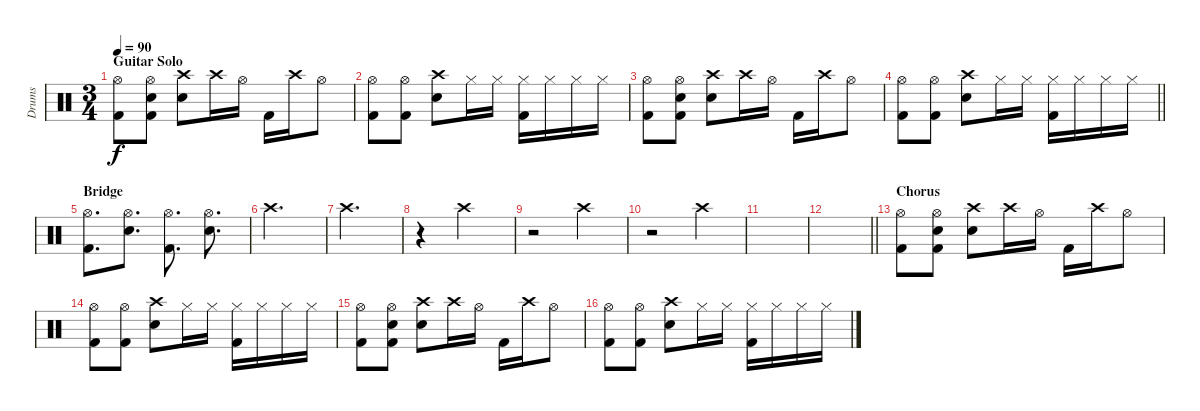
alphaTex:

\track ("Drums" "Drums") {instrument percussion}
\staff {score}
\articulation defaults
\ts (3 4)
\section ("" "Guitar Solo")
\tempo 90
\clef neutral
\ks c
("Hi-Hat (open)" "Kick (hit) 2").8{dy f} ("Hi-Hat (open)" "Snare (hit) 2" "Kick (hit) 2").8 ("Crash high (hit)" "Snare (hit) 2").8 "Crash high (hit)".16 "Hi-Hat (open)".16 "Kick (hit) 2".16 "Crash high (hit)".16 "Hi-Hat (open)".8 |
("Hi-Hat (open)" "Kick (hit) 2").8 ("Hi-Hat (open)" "Kick (hit) 2").8 ("Crash high (hit)" "Snare (hit) 2").8 "Hi-Hat (closed)".16 "Hi-Hat (closed)".16 ("Hi-Hat (closed)" "Kick (hit) 2").16 "Hi-Hat (closed)".16 "Hi-Hat (closed)".16 "Hi-Hat (closed)".16 |
("Hi-Hat (open)" "Kick (hit) 2").8 ("Hi-Hat (open)" "Snare (hit) 2" "Kick (hit) 2").8 ("Crash high (hit)" "Snare (hit) 2").8 "Crash high (hit)".16 "Hi-Hat (open)".16 "Kick (hit) 2".16 "Crash high (hit)".16 "Hi-Hat (open)".8 |
\barLineRight lightlight
("Hi-Hat (open)" "Kick (hit) 2").8 ("Hi-Hat (open)" "Kick (hit) 2").8 ("Crash high (hit)" "Snare (hit) 2").8 "Hi-Hat (closed)".16 "Hi-Hat (closed)".16 ("Hi-Hat (closed)" "Kick (hit) 2").16 "Hi-Hat (closed)".16 "Hi-Hat (closed)".16 "Hi-Hat (closed)".16 |
\section ("" "Bridge")
("Hi-Hat (open)" "Kick (hit) 2").8{d} ("Hi-Hat (open)" "Snare (hit) 2").8{d} ("Hi-Hat (open)" "Kick (hit) 2").8{d} ("Hi-Hat (open)" "Snare (hit) 2").8{d} |
"Crash high (hit)".2{d} |
"Crash high (hit)".2{d} |
r.4 "Crash high (hit)".2 |
r.2 "Crash high (hit)".4 |
r.2 "Crash high (hit)".4 |
|
\barLineRight lightlight
|
\section ("" "Chorus")
("Hi-Hat (open)" "Kick (hit) 2").8 ("Hi-Hat (open)" "Snare (hit) 2" "Kick (hit) 2").8 ("Crash high (hit)" "Snare (hit) 2").8 "Crash high (hit)".16 "Hi-Hat (open)".16 "Kick (hit) 2".16 "Crash high (hit)".16 "Hi-Hat (open)".8 |
("Hi-Hat (open)" "Kick (hit) 2").8 ("Hi-Hat (open)" "Kick (hit) 2").8 ("Crash high (hit)" "Snare (hit) 2").8 "Hi-Hat (closed)".16 "Hi-Hat (closed)".16 ("Hi-Hat (closed)" "Kick (hit) 2").16 "Hi-Hat (closed)".16 "Hi-Hat (closed)".16 "Hi-Hat (closed)".16 |
("Hi-Hat (open)" "Kick (hit) 2").8 ("Hi-Hat (open)" "Snare (hit) 2" "Kick (hit) 2").8 ("Crash high (hit)" "Snare (hit) 2").8 "Crash high (hit)".16 "Hi-Hat (open)".16 "Kick (hit) 2".16 "Crash high (hit)".16 "Hi-Hat (open)".8 |
("Hi-Hat (open)" "Kick (hit) 2").8 ("Hi-Hat (open)" "Kick (hit) 2").8 ("Crash high (hit)" "Snare (hit) 2").8 "Hi-Hat (closed)".16 "Hi-Hat (closed)".16 ("Hi-Hat (closed)" "Kick (hit) 2").16 "Hi-Hat (closed)".16 "Hi-Hat (closed)".16 "Hi-Hat (closed)".16
